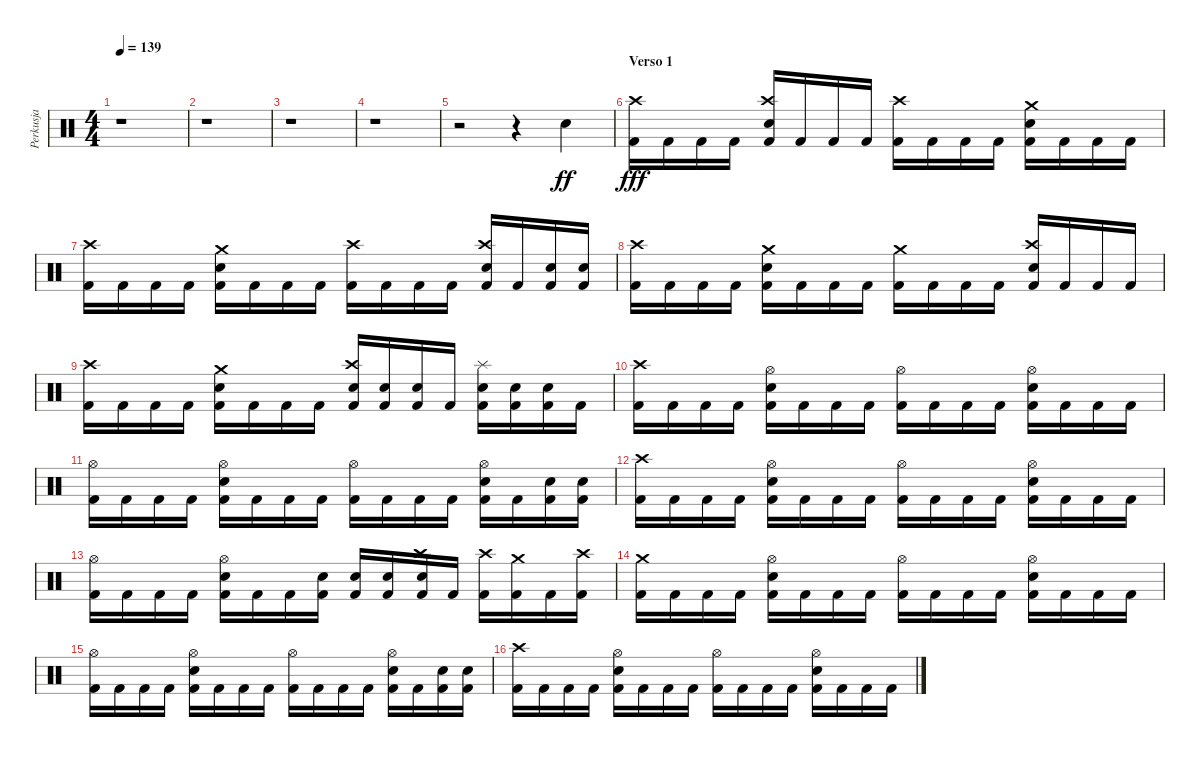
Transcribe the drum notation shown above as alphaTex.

\track ("Perkusja" "Perkusja") {instrument percussion}
\staff {score}
\articulation defaults
\ts (4 4)
\tempo 139
\clef neutral
\ks c
r.1{dy fff} |
r.1 |
r.1 |
r.1 |
r.2 r.4 "Snare (hit) 2".4{dy ff} |
\section ("" "Verso 1")
("Crash high (hit)" "Kick (hit) 2").16{dy fff} "Kick (hit) 2".16 "Kick (hit) 2".16 "Kick (hit) 2".16 ("Crash high (hit)" "Snare (hit) 2" "Kick (hit) 2").16 "Kick (hit) 2".16 "Kick (hit) 2".16 "Kick (hit) 2".16 ("Crash high (hit)" "Kick (hit) 2").16 "Kick (hit) 2".16 "Kick (hit) 2".16 "Kick (hit) 2".16 ("Crash medium (hit)" "Snare (hit) 2" "Kick (hit) 2").16 "Kick (hit) 2".16 "Kick (hit) 2".16 "Kick (hit) 2".16 |
("Crash high (hit)" "Kick (hit) 2").16 "Kick (hit) 2".16 "Kick (hit) 2".16 "Kick (hit) 2".16 ("Crash medium (hit)" "Snare (hit) 2" "Kick (hit) 2").16 "Kick (hit) 2".16 "Kick (hit) 2".16 "Kick (hit) 2".16 ("Crash high (hit)" "Kick (hit) 2").16 "Kick (hit) 2".16 "Kick (hit) 2".16 "Kick (hit) 2".16 ("Crash high (hit)" "Snare (hit) 2" "Kick (hit) 2").16 "Kick (hit) 2".16 ("Snare (hit) 2" "Kick (hit) 2").16 ("Snare (hit) 2" "Kick (hit) 2").16 |
("Crash high (hit)" "Kick (hit) 2").16 "Kick (hit) 2".16 "Kick (hit) 2".16 "Kick (hit) 2".16 ("Crash medium (hit)" "Snare (hit) 2" "Kick (hit) 2").16 "Kick (hit) 2".16 "Kick (hit) 2".16 "Kick (hit) 2".16 ("Crash medium (hit)" "Kick (hit) 2").16 "Kick (hit) 2".16 "Kick (hit) 2".16 "Kick (hit) 2".16 ("Crash high (hit)" "Snare (hit) 2" "Kick (hit) 2").16 "Kick (hit) 2".16 "Kick (hit) 2".16 "Kick (hit) 2".16 |
("Crash high (hit)" "Kick (hit) 2").16 "Kick (hit) 2".16 "Kick (hit) 2".16 "Kick (hit) 2".16 ("Crash medium (hit)" "Snare (hit) 2" "Kick (hit) 2").16 "Kick (hit) 2".16 "Kick (hit) 2".16 "Kick (hit) 2".16 ("Crash high (hit)" "Snare (hit) 2" "Kick (hit) 2").16 ("Snare (hit) 2" "Kick (hit) 2").16 ("Snare (hit) 2" "Kick (hit) 2").16 "Kick (hit) 2".16 ("Splash (hit)" "Snare (hit) 2" "Kick (hit) 2").16 ("Snare (hit) 2" "Kick (hit) 2").16 ("Snare (hit) 2" "Kick (hit) 2").16 "Kick (hit) 2".16 |
("Crash high (hit)" "Kick (hit) 2").16 "Kick (hit) 2".16 "Kick (hit) 2".16 "Kick (hit) 2".16 ("Hi-Hat (open)" "Snare (hit) 2" "Kick (hit) 2").16 "Kick (hit) 2".16 "Kick (hit) 2".16 "Kick (hit) 2".16 ("Hi-Hat (open)" "Kick (hit) 2").16 "Kick (hit) 2".16 "Kick (hit) 2".16 "Kick (hit) 2".16 ("Hi-Hat (open)" "Snare (hit) 2" "Kick (hit) 2").16 "Kick (hit) 2".16 "Kick (hit) 2".16 "Kick (hit) 2".16 |
("Hi-Hat (open)" "Kick (hit) 2").16 "Kick (hit) 2".16 "Kick (hit) 2".16 "Kick (hit) 2".16 ("Hi-Hat (open)" "Snare (hit) 2" "Kick (hit) 2").16 "Kick (hit) 2".16 "Kick (hit) 2".16 "Kick (hit) 2".16 ("Hi-Hat (open)" "Kick (hit) 2").16 "Kick (hit) 2".16 "Kick (hit) 2".16 "Kick (hit) 2".16 ("Hi-Hat (open)" "Snare (hit) 2" "Kick (hit) 2").16 "Kick (hit) 2".16 ("Snare (hit) 2" "Kick (hit) 2").16 ("Snare (hit) 2" "Kick (hit) 2").16 |
("Crash high (hit)" "Kick (hit) 2").16 "Kick (hit) 2".16 "Kick (hit) 2".16 "Kick (hit) 2".16 ("Hi-Hat (open)" "Snare (hit) 2" "Kick (hit) 2").16 "Kick (hit) 2".16 "Kick (hit) 2".16 "Kick (hit) 2".16 ("Hi-Hat (open)" "Kick (hit) 2").16 "Kick (hit) 2".16 "Kick (hit) 2".16 "Kick (hit) 2".16 ("Hi-Hat (open)" "Snare (hit) 2" "Kick (hit) 2").16 "Kick (hit) 2".16 "Kick (hit) 2".16 "Kick (hit) 2".16 |
("Hi-Hat (open)" "Kick (hit) 2").16 "Kick (hit) 2".16 "Kick (hit) 2".16 "Kick (hit) 2".16 ("Hi-Hat (open)" "Snare (hit) 2" "Kick (hit) 2").16 "Kick (hit) 2".16 "Kick (hit) 2".16 ("Snare (hit) 2" "Kick (hit) 2").16 ("Snare (hit) 2" "Kick (hit) 2").16 ("Snare (hit) 2" "Kick (hit) 2").16 ("Crash high (hit)" "Snare (hit) 2" "Kick (hit) 2").16 "Kick (hit) 2".16 ("Crash high (hit)" "Kick (hit) 2").16 ("Crash medium (hit)" "Kick (hit) 2").16 "Kick (hit) 2".16 ("Crash high (hit)" "Kick (hit) 2").16 |
("Crash medium (hit)" "Kick (hit) 2").16 "Kick (hit) 2".16 "Kick (hit) 2".16 "Kick (hit) 2".16 ("Hi-Hat (open)" "Snare (hit) 2" "Kick (hit) 2").16 "Kick (hit) 2".16 "Kick (hit) 2".16 "Kick (hit) 2".16 ("Hi-Hat (open)" "Kick (hit) 2").16 "Kick (hit) 2".16 "Kick (hit) 2".16 "Kick (hit) 2".16 ("Hi-Hat (open)" "Snare (hit) 2" "Kick (hit) 2").16 "Kick (hit) 2".16 "Kick (hit) 2".16 "Kick (hit) 2".16 |
("Hi-Hat (open)" "Kick (hit) 2").16 "Kick (hit) 2".16 "Kick (hit) 2".16 "Kick (hit) 2".16 ("Hi-Hat (open)" "Snare (hit) 2" "Kick (hit) 2").16 "Kick (hit) 2".16 "Kick (hit) 2".16 "Kick (hit) 2".16 ("Hi-Hat (open)" "Kick (hit) 2").16 "Kick (hit) 2".16 "Kick (hit) 2".16 "Kick (hit) 2".16 ("Hi-Hat (open)" "Snare (hit) 2" "Kick (hit) 2").16 "Kick (hit) 2".16 ("Snare (hit) 2" "Kick (hit) 2").16 ("Snare (hit) 2" "Kick (hit) 2").16 |
("Crash high (hit)" "Kick (hit) 2").16 "Kick (hit) 2".16 "Kick (hit) 2".16 "Kick (hit) 2".16 ("Hi-Hat (open)" "Snare (hit) 2" "Kick (hit) 2").16 "Kick (hit) 2".16 "Kick (hit) 2".16 "Kick (hit) 2".16 ("Hi-Hat (open)" "Kick (hit) 2").16 "Kick (hit) 2".16 "Kick (hit) 2".16 "Kick (hit) 2".16 ("Hi-Hat (open)" "Snare (hit) 2" "Kick (hit) 2").16 "Kick (hit) 2".16 "Kick (hit) 2".16 "Kick (hit) 2".16
